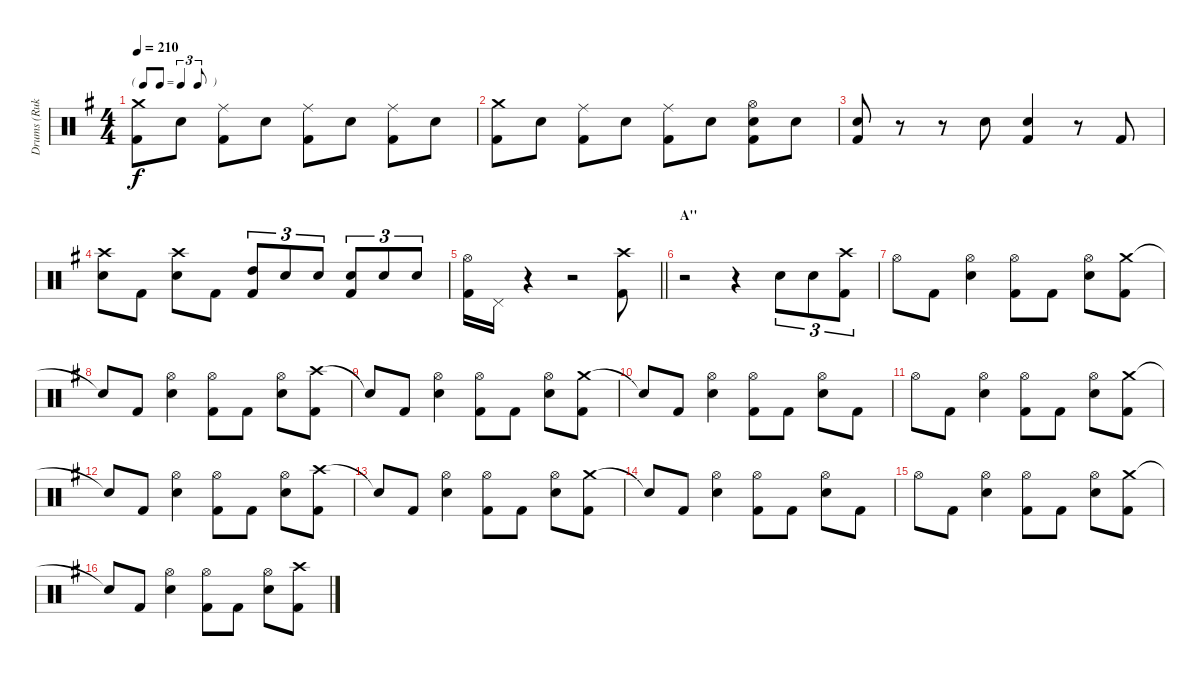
\track ("Drums (Ruka)" "Drums (Ruk") {instrument percussion}
\staff {score}
\articulation defaults
\ts (4 4)
\tf triplet8th
\tempo 210
\clef neutral
\ks g
("Crash medium (hit)" "Kick (hit) 2").8{dy f} "Electric Snare (hit)".8 ("Ride (middle)" "Kick (hit) 2").8 "Electric Snare (hit)".8 ("Ride (middle)" "Kick (hit) 2").8 "Electric Snare (hit)".8 ("Ride (middle)" "Kick (hit) 2").8 "Electric Snare (hit)".8 |
("Crash medium (hit)" "Kick (hit) 2").8 "Electric Snare (hit)".8 ("Ride (middle)" "Kick (hit) 2").8 "Electric Snare (hit)".8 ("Ride (middle)" "Kick (hit) 2").8 "Electric Snare (hit)".8 ("Hi-Hat (open)" "Electric Snare (hit)" "Kick (hit) 2").8 "Electric Snare (hit)".8 |
("Electric Snare (hit)" "Kick (hit) 2").8 r.8 r.8 "Electric Snare (hit)".8 ("Electric Snare (hit)" "Kick (hit) 2").4 r.8 "Kick (hit) 2".8 |
("Crash high (hit)" "Electric Snare (hit)").8 "Kick (hit) 2".8 ("Crash high (hit)" "Electric Snare (hit)").8 "Kick (hit) 2".8 ("High Tom (hit)" "Kick (hit) 2").8{tu (3 2)} "Electric Snare (hit)".8{tu (3 2)} "Electric Snare (hit)".8{tu (3 2)} ("Electric Snare (hit)" "Kick (hit) 2").8{tu (3 2)} "Electric Snare (hit)".8{tu (3 2)} "Electric Snare (hit)".8{tu (3 2)} |
\barLineRight lightlight
("Hi-Hat (open)" "Kick (hit) 2").16 "Pedal Hi-Hat (hit)".16 r.4 r.2 ("Crash high (hit)" "Kick (hit) 2").8 |
\section ("" "A''")
r.2 r.4 "Electric Snare (hit)".8{tu (3 2)} "Electric Snare (hit)".8{tu (3 2)} ("Crash high (hit)" "Kick (hit) 2").8{tu (3 2)} |
"Hi-Hat (open)".8 "Kick (hit) 2".8 ("Hi-Hat (open)" "Electric Snare (hit)").4 ("Hi-Hat (open)" "Kick (hit) 2").8 "Kick (hit) 2".8 ("Hi-Hat (open)" "Electric Snare (hit)").8 ("Crash medium (hit)" "Kick (hit) 2").8 |
"Snare (hit)"{t}.8 "Kick (hit) 2".8 ("Hi-Hat (open)" "Electric Snare (hit)").4 ("Hi-Hat (open)" "Kick (hit) 2").8 "Kick (hit) 2".8 ("Hi-Hat (open)" "Electric Snare (hit)").8 ("Crash high (hit)" "Kick (hit) 2").8 |
"Snare (hit)"{t}.8 "Kick (hit) 2".8 ("Hi-Hat (open)" "Electric Snare (hit)").4 ("Hi-Hat (open)" "Kick (hit) 2").8 "Kick (hit) 2".8 ("Hi-Hat (open)" "Electric Snare (hit)").8 ("Crash medium (hit)" "Kick (hit) 2").8 |
"Snare (hit)"{t}.8 "Kick (hit) 2".8 ("Hi-Hat (open)" "Electric Snare (hit)").4 ("Hi-Hat (open)" "Kick (hit) 2").8 "Kick (hit) 2".8 ("Hi-Hat (open)" "Electric Snare (hit)").8 "Kick (hit) 2".8 |
"Hi-Hat (open)".8 "Kick (hit) 2".8 ("Hi-Hat (open)" "Electric Snare (hit)").4 ("Hi-Hat (open)" "Kick (hit) 2").8 "Kick (hit) 2".8 ("Hi-Hat (open)" "Electric Snare (hit)").8 ("Crash medium (hit)" "Kick (hit) 2").8 |
"Snare (hit)"{t}.8 "Kick (hit) 2".8 ("Hi-Hat (open)" "Electric Snare (hit)").4 ("Hi-Hat (open)" "Kick (hit) 2").8 "Kick (hit) 2".8 ("Hi-Hat (open)" "Electric Snare (hit)").8 ("Crash high (hit)" "Kick (hit) 2").8 |
"Snare (hit)"{t}.8 "Kick (hit) 2".8 ("Hi-Hat (open)" "Electric Snare (hit)").4 ("Hi-Hat (open)" "Kick (hit) 2").8 "Kick (hit) 2".8 ("Hi-Hat (open)" "Electric Snare (hit)").8 ("Crash medium (hit)" "Kick (hit) 2").8 |
"Snare (hit)"{t}.8 "Kick (hit) 2".8 ("Hi-Hat (open)" "Electric Snare (hit)").4 ("Hi-Hat (open)" "Kick (hit) 2").8 "Kick (hit) 2".8 ("Hi-Hat (open)" "Electric Snare (hit)").8 "Kick (hit) 2".8 |
"Hi-Hat (open)".8 "Kick (hit) 2".8 ("Hi-Hat (open)" "Electric Snare (hit)").4 ("Hi-Hat (open)" "Kick (hit) 2").8 "Kick (hit) 2".8 ("Hi-Hat (open)" "Electric Snare (hit)").8 ("Crash medium (hit)" "Kick (hit) 2").8 |
"Snare (hit)"{t}.8 "Kick (hit) 2".8 ("Hi-Hat (open)" "Electric Snare (hit)").4 ("Hi-Hat (open)" "Kick (hit) 2").8 "Kick (hit) 2".8 ("Hi-Hat (open)" "Electric Snare (hit)").8 ("Crash high (hit)" "Kick (hit) 2").8
